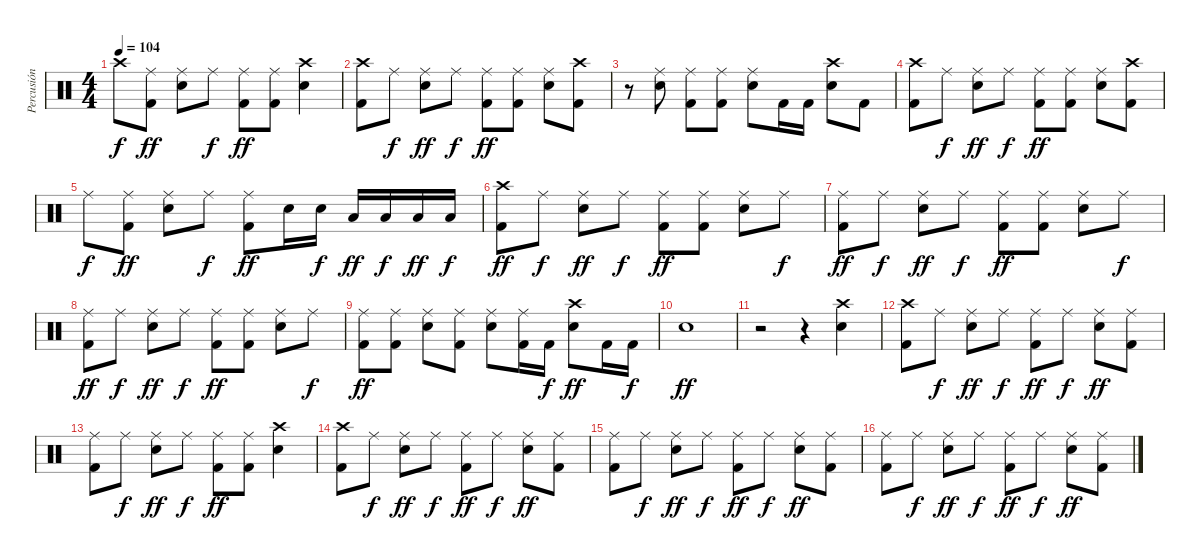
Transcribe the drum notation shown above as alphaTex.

\track ("Percusión" "Percusión") {instrument percussion}
\staff {score}
\articulation defaults
\ts (4 4)
\tempo 104
\clef neutral
\ks c "Crash high (hit)".8{dy f}
("Ride (middle)" "Kick (hit) 2").8{dy ff} ("Ride (middle)" "Snare (hit) 2").8 "Ride (middle)".8{dy f} ("Ride (middle)" "Kick (hit) 2").8{dy ff} ("Ride (middle)" "Kick (hit) 2").8 ("Crash high (hit)" "Snare (hit) 2").4 |
("Crash high (hit)" "Kick (hit) 2").8 "Ride (middle)".8{dy f} ("Ride (middle)" "Snare (hit) 2").8{dy ff} "Ride (middle)".8{dy f} ("Ride (middle)" "Kick (hit) 2").8{dy ff} ("Ride (middle)" "Kick (hit) 2").8 ("Ride (middle)" "Snare (hit) 2").8 ("Crash high (hit)" "Kick (hit) 2").8 |
r.8 ("Ride (middle)" "Snare (hit) 2").8 ("Ride (middle)" "Kick (hit) 2").8 ("Ride (middle)" "Kick (hit) 2").8 ("Ride (middle)" "Snare (hit) 2").8 "Kick (hit) 2".16 "Kick (hit) 2".16 ("Crash high (hit)" "Snare (hit) 2").8 "Kick (hit) 2".8 |
("Crash high (hit)" "Kick (hit) 2").8 "Ride (middle)".8{dy f} ("Ride (middle)" "Snare (hit) 2").8{dy ff} "Ride (middle)".8{dy f} ("Ride (middle)" "Kick (hit) 2").8{dy ff} ("Ride (middle)" "Kick (hit) 2").8 ("Ride (middle)" "Snare (hit) 2").8 ("Crash high (hit)" "Kick (hit) 2").8 |
"Ride (middle)".8{dy f} ("Ride (middle)" "Kick (hit) 2").8{dy ff} ("Ride (middle)" "Snare (hit) 2").8 "Ride (middle)".8{dy f} ("Ride (middle)" "Kick (hit) 2").8{dy ff} "Snare (hit) 2".16 "Snare (hit) 2".16{dy f} "Low Tom (hit)".16{dy ff} "Low Tom (hit)".16{dy f} "Low Floor Tom (hit)".16{dy ff} "Low Floor Tom (hit)".16{dy f} |
("Crash high (hit)" "Kick (hit) 2").8{dy ff} "Ride (middle)".8{dy f} ("Ride (middle)" "Snare (hit) 2").8{dy ff} "Ride (middle)".8{dy f} ("Ride (middle)" "Kick (hit) 2").8{dy ff} ("Ride (middle)" "Kick (hit) 2").8 ("Ride (middle)" "Snare (hit) 2").8 "Ride (middle)".8{dy f} |
("Ride (middle)" "Kick (hit) 2").8{dy ff} "Ride (middle)".8{dy f} ("Ride (middle)" "Snare (hit) 2").8{dy ff} "Ride (middle)".8{dy f} ("Ride (middle)" "Kick (hit) 2").8{dy ff} ("Ride (middle)" "Kick (hit) 2").8 ("Ride (middle)" "Snare (hit) 2").8 "Ride (middle)".8{dy f} |
("Ride (middle)" "Kick (hit) 2").8{dy ff} "Ride (middle)".8{dy f} ("Ride (middle)" "Snare (hit) 2").8{dy ff} "Ride (middle)".8{dy f} ("Ride (middle)" "Kick (hit) 2").8{dy ff} ("Ride (middle)" "Kick (hit) 2").8 ("Ride (middle)" "Snare (hit) 2").8 "Ride (middle)".8{dy f} |
("Ride (middle)" "Kick (hit) 2").8{dy ff} ("Ride (middle)" "Kick (hit) 2").8 ("Ride (middle)" "Snare (hit) 2").8 ("Ride (middle)" "Kick (hit) 2").8 ("Ride (middle)" "Snare (hit) 2").8 ("Ride (middle)" "Kick (hit) 2").16 "Kick (hit) 2".16{dy f} ("Crash high (hit)" "Snare (hit) 2").8{dy ff} "Kick (hit) 2".16 "Kick (hit) 2".16{dy f} |
"Snare (hit) 2".1{dy ff} |
r.2 r.4 ("Crash high (hit)" "Snare (hit) 2").4 |
("Crash high (hit)" "Kick (hit) 2").8 "Ride (middle)".8{dy f} ("Ride (middle)" "Snare (hit) 2").8{dy ff} "Ride (middle)".8{dy f} ("Ride (middle)" "Kick (hit) 2").8{dy ff} "Ride (middle)".8{dy f} ("Ride (middle)" "Snare (hit) 2").8{dy ff} ("Ride (middle)" "Kick (hit) 2").8 |
("Ride (middle)" "Kick (hit) 2").8 "Ride (middle)".8{dy f} ("Ride (middle)" "Snare (hit) 2").8{dy ff} "Ride (middle)".8{dy f} ("Ride (middle)" "Kick (hit) 2").8{dy ff} ("Ride (middle)" "Kick (hit) 2").8 ("Crash high (hit)" "Snare (hit) 2").4 |
("Crash high (hit)" "Kick (hit) 2").8 "Ride (middle)".8{dy f} ("Ride (middle)" "Snare (hit) 2").8{dy ff} "Ride (middle)".8{dy f} ("Ride (middle)" "Kick (hit) 2").8{dy ff} "Ride (middle)".8{dy f} ("Ride (middle)" "Snare (hit) 2").8{dy ff} ("Ride (middle)" "Kick (hit) 2").8 |
("Ride (middle)" "Kick (hit) 2").8 "Ride (middle)".8{dy f} ("Ride (middle)" "Snare (hit) 2").8{dy ff} "Ride (middle)".8{dy f} ("Ride (middle)" "Kick (hit) 2").8{dy ff} "Ride (middle)".8{dy f} ("Ride (middle)" "Snare (hit) 2").8{dy ff} ("Ride (middle)" "Kick (hit) 2").8 |
("Ride (middle)" "Kick (hit) 2").8 "Ride (middle)".8{dy f} ("Ride (middle)" "Snare (hit) 2").8{dy ff} "Ride (middle)".8{dy f} ("Ride (middle)" "Kick (hit) 2").8{dy ff} "Ride (middle)".8{dy f} ("Ride (middle)" "Snare (hit) 2").8{dy ff} ("Ride (middle)" "Kick (hit) 2").8
